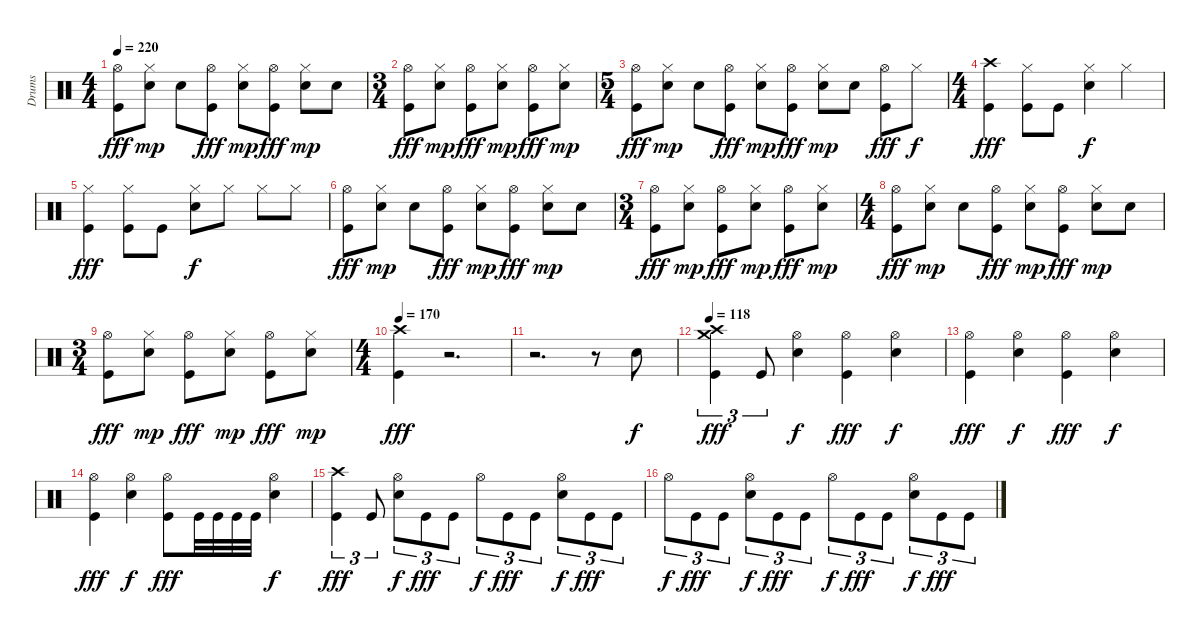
\track ("Drums" "Drums") {instrument percussion}
\staff {score}
\articulation defaults
\ts (4 4)
\tempo 220
\clef neutral
\ks c
("Hi-Hat (open)" "Kick (hit)").8{dy fff} ("Hi-Hat (closed)" "Electric Snare (hit)").8{dy mp} "Electric Snare (hit)".8 ("Hi-Hat (open)" "Kick (hit)").8{dy fff} ("Hi-Hat (closed)" "Electric Snare (hit)").8{dy mp} ("Hi-Hat (open)" "Kick (hit)").8{dy fff} ("Hi-Hat (closed)" "Electric Snare (hit)").8{dy mp} "Electric Snare (hit)".8 |
\ts (3 4)
("Hi-Hat (open)" "Kick (hit)").8{dy fff} ("Hi-Hat (closed)" "Electric Snare (hit)").8{dy mp} ("Hi-Hat (open)" "Kick (hit)").8{dy fff} ("Hi-Hat (closed)" "Electric Snare (hit)").8{dy mp} ("Hi-Hat (open)" "Kick (hit)").8{dy fff} ("Hi-Hat (closed)" "Electric Snare (hit)").8{dy mp} |
\ts (5 4)
("Hi-Hat (open)" "Kick (hit)").8{dy fff} ("Hi-Hat (closed)" "Electric Snare (hit)").8{dy mp} "Electric Snare (hit)".8 ("Hi-Hat (open)" "Kick (hit)").8{dy fff} ("Hi-Hat (closed)" "Electric Snare (hit)").8{dy mp} ("Hi-Hat (open)" "Kick (hit)").8{dy fff} ("Hi-Hat (closed)" "Electric Snare (hit)").8{dy mp} "Electric Snare (hit)".8 ("Hi-Hat (open)" "Kick (hit)").8{dy fff} "Hi-Hat (closed)".8{dy f} |
\ts (4 4)
("Crash high (hit)" "Kick (hit)").4{dy fff} ("Hi-Hat (closed)" "Kick (hit)").8 "Kick (hit)".8 ("Hi-Hat (closed)" "Electric Snare (hit)").4{dy f} "Hi-Hat (closed)".4 |
("Hi-Hat (closed)" "Kick (hit)").4{dy fff} ("Hi-Hat (closed)" "Kick (hit)").8 "Kick (hit)".8 ("Hi-Hat (closed)" "Electric Snare (hit)").8{dy f} "Hi-Hat (closed)".8 "Hi-Hat (closed)".8 "Hi-Hat (closed)".8 |
("Hi-Hat (open)" "Kick (hit)").8{dy fff} ("Hi-Hat (closed)" "Electric Snare (hit)").8{dy mp} "Electric Snare (hit)".8 ("Hi-Hat (open)" "Kick (hit)").8{dy fff} ("Hi-Hat (closed)" "Electric Snare (hit)").8{dy mp} ("Hi-Hat (open)" "Kick (hit)").8{dy fff} ("Hi-Hat (closed)" "Electric Snare (hit)").8{dy mp} "Electric Snare (hit)".8 |
\ts (3 4)
("Hi-Hat (open)" "Kick (hit)").8{dy fff} ("Hi-Hat (closed)" "Electric Snare (hit)").8{dy mp} ("Hi-Hat (open)" "Kick (hit)").8{dy fff} ("Hi-Hat (closed)" "Electric Snare (hit)").8{dy mp} ("Hi-Hat (open)" "Kick (hit)").8{dy fff} ("Hi-Hat (closed)" "Electric Snare (hit)").8{dy mp} |
\ts (4 4)
("Hi-Hat (open)" "Kick (hit)").8{dy fff} ("Hi-Hat (closed)" "Electric Snare (hit)").8{dy mp} "Electric Snare (hit)".8 ("Hi-Hat (open)" "Kick (hit)").8{dy fff} ("Hi-Hat (closed)" "Electric Snare (hit)").8{dy mp} ("Hi-Hat (open)" "Kick (hit)").8{dy fff} ("Hi-Hat (closed)" "Electric Snare (hit)").8{dy mp} "Electric Snare (hit)".8 |
\ts (3 4)
("Hi-Hat (open)" "Kick (hit)").8{dy fff} ("Hi-Hat (closed)" "Electric Snare (hit)").8{dy mp} ("Hi-Hat (open)" "Kick (hit)").8{dy fff} ("Hi-Hat (closed)" "Electric Snare (hit)").8{dy mp} ("Hi-Hat (open)" "Kick (hit)").8{dy fff} ("Hi-Hat (closed)" "Electric Snare (hit)").8{dy mp} |
\ts (4 4)
\tempo 170
("Crash high (hit)" "Kick (hit)").4{dy fff} r.2{d volume 0} |
r.2{d} r.8 "Electric Snare (hit)".8{dy f volume 15} |
\tempo 118
("Crash medium (hit)" "Crash high (hit)" "Kick (hit)").4{tu (3 2) dy fff} "Kick (hit)".8{tu (3 2)} ("Hi-Hat (open)" "Electric Snare (hit)").4{dy f} ("Hi-Hat (open)" "Kick (hit)").4{dy fff} ("Hi-Hat (open)" "Electric Snare (hit)").4{dy f} |
("Hi-Hat (open)" "Kick (hit)").4{dy fff} ("Hi-Hat (open)" "Electric Snare (hit)").4{dy f} ("Hi-Hat (open)" "Kick (hit)").4{dy fff} ("Hi-Hat (open)" "Electric Snare (hit)").4{dy f} |
("Hi-Hat (open)" "Kick (hit)").4{dy fff} ("Hi-Hat (open)" "Electric Snare (hit)").4{dy f} ("Hi-Hat (open)" "Kick (hit)").8{dy fff} "Kick (hit)".32 "Kick (hit)".32 "Kick (hit)".32 "Kick (hit)".32 ("Hi-Hat (open)" "Electric Snare (hit)").4{dy f} |
("Crash high (hit)" "Kick (hit)").4{tu (3 2) dy fff} "Kick (hit)".8{tu (3 2)} ("Hi-Hat (open)" "Electric Snare (hit)").8{tu (3 2) dy f} "Kick (hit)".8{tu (3 2) dy fff} "Kick (hit)".8{tu (3 2)} "Hi-Hat (open)".8{tu (3 2) dy f} "Kick (hit)".8{tu (3 2) dy fff} "Kick (hit)".8{tu (3 2)} ("Hi-Hat (open)" "Electric Snare (hit)").8{tu (3 2) dy f} "Kick (hit)".8{tu (3 2) dy fff} "Kick (hit)".8{tu (3 2)} |
"Hi-Hat (open)".8{tu (3 2) dy f} "Kick (hit)".8{tu (3 2) dy fff} "Kick (hit)".8{tu (3 2)} ("Hi-Hat (open)" "Electric Snare (hit)").8{tu (3 2) dy f} "Kick (hit)".8{tu (3 2) dy fff} "Kick (hit)".8{tu (3 2)} "Hi-Hat (open)".8{tu (3 2) dy f} "Kick (hit)".8{tu (3 2) dy fff} "Kick (hit)".8{tu (3 2)} ("Hi-Hat (open)" "Electric Snare (hit)").8{tu (3 2) dy f} "Kick (hit)".8{tu (3 2) dy fff} "Kick (hit)".8{tu (3 2)}
